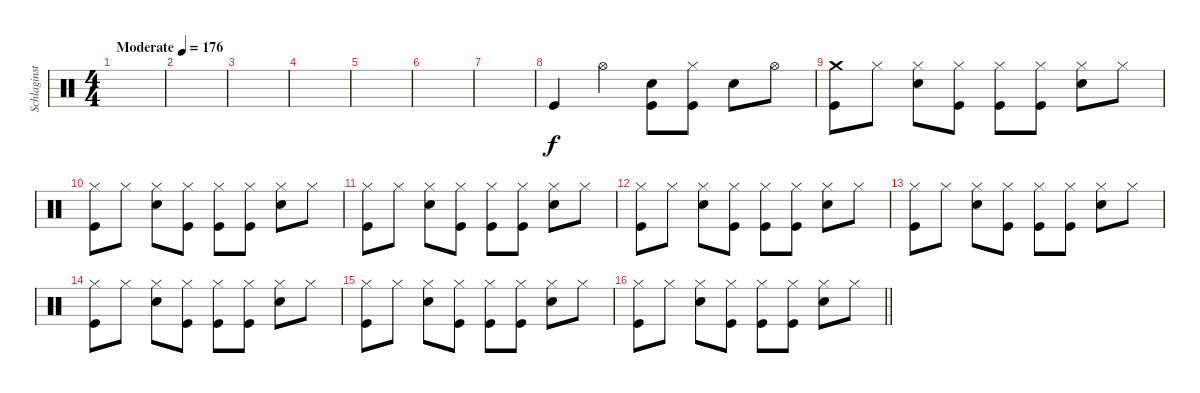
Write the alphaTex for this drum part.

\track ("Schlaginstrumente - Auswahl" "Schlaginst") {instrument percussion}
\staff {score}
\articulation defaults
\ts (4 4)
\tempo (176 "Moderate")
\clef neutral
\ks c
|
|
|
|
|
|
|
"Kick (hit)".4 "Hi-Hat (open)".4 ("Kick (hit)" "Snare (hit) 2").8 ("Kick (hit)" "Hi-Hat (closed)").8 "Snare (hit) 2".8 "Hi-Hat (open)".8 |
("Crash medium (hit)" "Kick (hit)").8 "Hi-Hat (closed)".8 ("Hi-Hat (closed)" "Snare (hit) 2").8 ("Hi-Hat (closed)" "Kick (hit)").8 ("Hi-Hat (closed)" "Kick (hit)").8 ("Hi-Hat (closed)" "Kick (hit)").8 ("Hi-Hat (closed)" "Snare (hit) 2").8 "Hi-Hat (closed)".8 |
("Hi-Hat (closed)" "Kick (hit)").8 "Hi-Hat (closed)".8 ("Hi-Hat (closed)" "Snare (hit) 2").8 ("Hi-Hat (closed)" "Kick (hit)").8 ("Hi-Hat (closed)" "Kick (hit)").8 ("Hi-Hat (closed)" "Kick (hit)").8 ("Hi-Hat (closed)" "Snare (hit) 2").8 "Hi-Hat (closed)".8 |
("Hi-Hat (closed)" "Kick (hit)").8 "Hi-Hat (closed)".8 ("Hi-Hat (closed)" "Snare (hit) 2").8 ("Hi-Hat (closed)" "Kick (hit)").8 ("Hi-Hat (closed)" "Kick (hit)").8 ("Hi-Hat (closed)" "Kick (hit)").8 ("Hi-Hat (closed)" "Snare (hit) 2").8 "Hi-Hat (closed)".8 |
("Hi-Hat (closed)" "Kick (hit)").8 "Hi-Hat (closed)".8 ("Hi-Hat (closed)" "Snare (hit) 2").8 ("Hi-Hat (closed)" "Kick (hit)").8 ("Hi-Hat (closed)" "Kick (hit)").8 ("Hi-Hat (closed)" "Kick (hit)").8 ("Hi-Hat (closed)" "Snare (hit) 2").8 "Hi-Hat (closed)".8 |
("Hi-Hat (closed)" "Kick (hit)").8 "Hi-Hat (closed)".8 ("Hi-Hat (closed)" "Snare (hit) 2").8 ("Hi-Hat (closed)" "Kick (hit)").8 ("Hi-Hat (closed)" "Kick (hit)").8 ("Hi-Hat (closed)" "Kick (hit)").8 ("Hi-Hat (closed)" "Snare (hit) 2").8 "Hi-Hat (closed)".8 |
("Hi-Hat (closed)" "Kick (hit)").8 "Hi-Hat (closed)".8 ("Hi-Hat (closed)" "Snare (hit) 2").8 ("Hi-Hat (closed)" "Kick (hit)").8 ("Hi-Hat (closed)" "Kick (hit)").8 ("Hi-Hat (closed)" "Kick (hit)").8 ("Hi-Hat (closed)" "Snare (hit) 2").8 "Hi-Hat (closed)".8 |
("Hi-Hat (closed)" "Kick (hit)").8 "Hi-Hat (closed)".8 ("Hi-Hat (closed)" "Snare (hit) 2").8 ("Hi-Hat (closed)" "Kick (hit)").8 ("Hi-Hat (closed)" "Kick (hit)").8 ("Hi-Hat (closed)" "Kick (hit)").8 ("Hi-Hat (closed)" "Snare (hit) 2").8 "Hi-Hat (closed)".8 |
\barLineRight lightlight
("Hi-Hat (closed)" "Kick (hit)").8 "Hi-Hat (closed)".8 ("Hi-Hat (closed)" "Snare (hit) 2").8 ("Hi-Hat (closed)" "Kick (hit)").8 ("Hi-Hat (closed)" "Kick (hit)").8 ("Hi-Hat (closed)" "Kick (hit)").8 ("Hi-Hat (closed)" "Snare (hit) 2").8 "Hi-Hat (closed)".8
